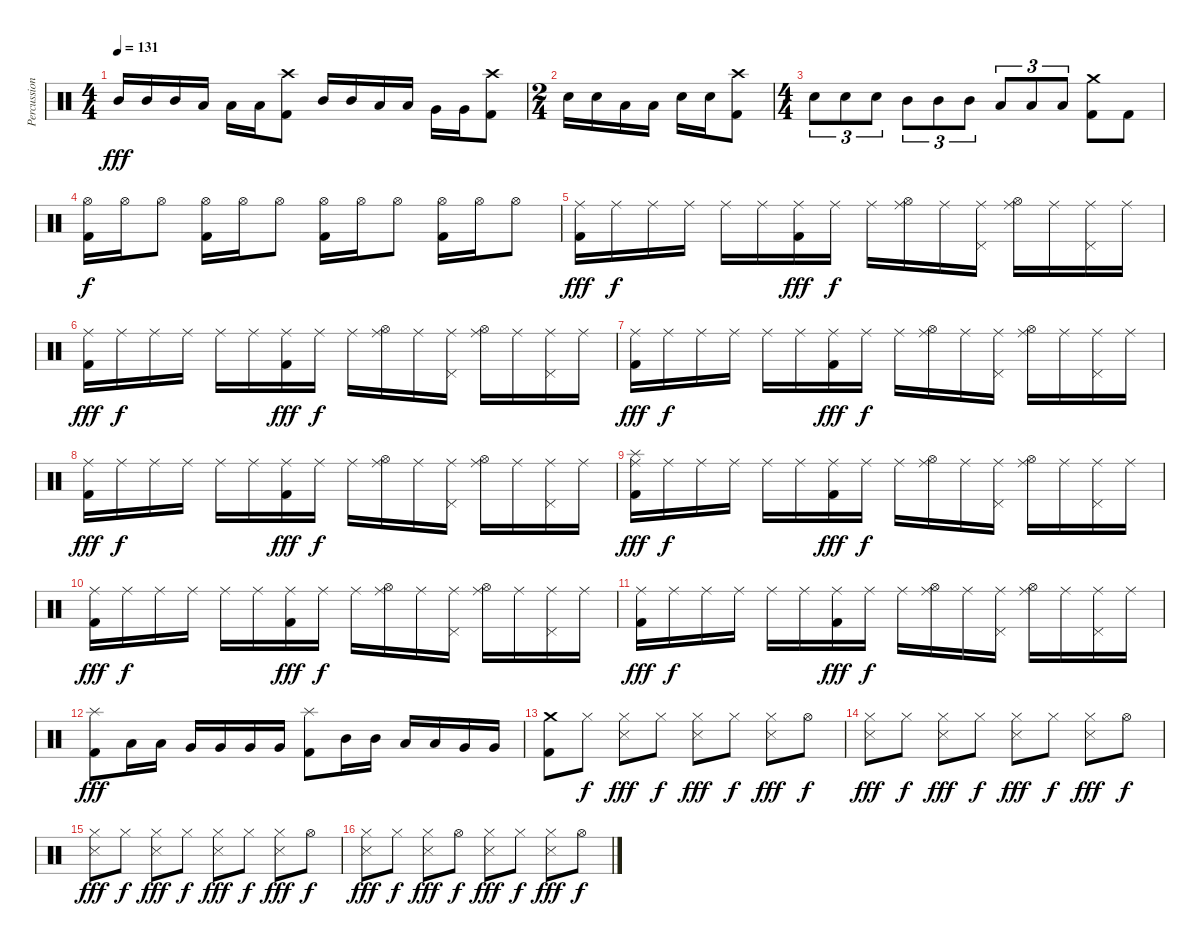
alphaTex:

\track ("Percussion" "Percussion") {instrument percussion}
\staff {score}
\articulation defaults
\ts (4 4)
\tempo 131
\clef neutral
\ks c "Mid Tom (hit)".16{dy fff} "Mid Tom (hit)".16 "Mid Tom (hit)".16 "Low Tom (hit)".16 "Low Tom (hit)".16 "Low Tom (hit)".16
("Crash high (hit)" "Kick (hit) 2").8 "Mid Tom (hit)".16 "Mid Tom (hit)".16 "Low Tom (hit)".16 "Low Tom (hit)".16 "Very Low Tom (hit)".16 "Very Low Tom (hit)".16 ("Crash high (hit)" "Kick (hit) 2").8 |
\ts (2 4)
"Electric Snare (hit)".16 "Electric Snare (hit)".16 "Low Tom (hit)".16 "Low Tom (hit)".16 "Electric Snare (hit)".16 "Electric Snare (hit)".16 ("Crash high (hit)" "Kick (hit) 2").8 |
\ts (4 4)
"Electric Snare (hit)".8{tu (3 2)} "Electric Snare (hit)".8{tu (3 2)} "Electric Snare (hit)".8{tu (3 2)} "Mid Tom (hit)".8{tu (3 2)} "Mid Tom (hit)".8{tu (3 2)} "Mid Tom (hit)".8{tu (3 2)} "Low Tom (hit)".8{tu (3 2)} "Low Tom (hit)".8{tu (3 2)} "Low Tom (hit)".8{tu (3 2)} ("Crash medium (hit)" "Kick (hit) 2").8 "Kick (hit) 2".8 |
("Hi-Hat (open)" "Kick (hit) 2").16{dy f} "Hi-Hat (open)".16 "Hi-Hat (open)".8 ("Hi-Hat (open)" "Kick (hit) 2").16 "Hi-Hat (open)".16 "Hi-Hat (open)".8 ("Hi-Hat (open)" "Kick (hit) 2").16 "Hi-Hat (open)".16 "Hi-Hat (open)".8 ("Hi-Hat (open)" "Kick (hit) 2").16 "Hi-Hat (open)".16 "Hi-Hat (open)".8 |
("Ride (middle)" "Kick (hit) 2").16{dy fff} "Ride (middle)".16{dy f} "Ride (middle)".16 "Ride (middle)".16 "Ride (middle)".16 "Ride (middle)".16 ("Ride (middle)" "Kick (hit) 2").16{dy fff} "Ride (middle)".16{dy f} "Ride (middle)".16 ("Ride (middle)" "Hi-Hat (open)").16 "Ride (middle)".16 ("Ride (middle)" "Pedal Hi-Hat (hit)").16 ("Ride (middle)" "Hi-Hat (open)").16 "Ride (middle)".16 ("Ride (middle)" "Pedal Hi-Hat (hit)").16 "Ride (middle)".16 |
("Ride (middle)" "Kick (hit) 2").16{dy fff} "Ride (middle)".16{dy f} "Ride (middle)".16 "Ride (middle)".16 "Ride (middle)".16 "Ride (middle)".16 ("Ride (middle)" "Kick (hit) 2").16{dy fff} "Ride (middle)".16{dy f} "Ride (middle)".16 ("Ride (middle)" "Hi-Hat (open)").16 "Ride (middle)".16 ("Ride (middle)" "Pedal Hi-Hat (hit)").16 ("Ride (middle)" "Hi-Hat (open)").16 "Ride (middle)".16 ("Ride (middle)" "Pedal Hi-Hat (hit)").16 "Ride (middle)".16 |
("Ride (middle)" "Kick (hit) 2").16{dy fff} "Ride (middle)".16{dy f} "Ride (middle)".16 "Ride (middle)".16 "Ride (middle)".16 "Ride (middle)".16 ("Ride (middle)" "Kick (hit) 2").16{dy fff} "Ride (middle)".16{dy f} "Ride (middle)".16 ("Ride (middle)" "Hi-Hat (open)").16 "Ride (middle)".16 ("Ride (middle)" "Pedal Hi-Hat (hit)").16 ("Ride (middle)" "Hi-Hat (open)").16 "Ride (middle)".16 ("Ride (middle)" "Pedal Hi-Hat (hit)").16 "Ride (middle)".16 |
("Ride (middle)" "Kick (hit) 2").16{dy fff} "Ride (middle)".16{dy f} "Ride (middle)".16 "Ride (middle)".16 "Ride (middle)".16 "Ride (middle)".16 ("Ride (middle)" "Kick (hit) 2").16{dy fff} "Ride (middle)".16{dy f} "Ride (middle)".16 ("Ride (middle)" "Hi-Hat (open)").16 "Ride (middle)".16 ("Ride (middle)" "Pedal Hi-Hat (hit)").16 ("Ride (middle)" "Hi-Hat (open)").16 "Ride (middle)".16 ("Ride (middle)" "Pedal Hi-Hat (hit)").16 "Ride (middle)".16 |
("Ride (middle)" "Splash (hit)" "Kick (hit) 2").16{dy fff} "Ride (middle)".16{dy f} "Ride (middle)".16 "Ride (middle)".16 "Ride (middle)".16 "Ride (middle)".16 ("Ride (middle)" "Kick (hit) 2").16{dy fff} "Ride (middle)".16{dy f} "Ride (middle)".16 ("Ride (middle)" "Hi-Hat (open)").16 "Ride (middle)".16 ("Ride (middle)" "Pedal Hi-Hat (hit)").16 ("Ride (middle)" "Hi-Hat (open)").16 "Ride (middle)".16 ("Ride (middle)" "Pedal Hi-Hat (hit)").16 "Ride (middle)".16 |
("Ride (middle)" "Kick (hit) 2").16{dy fff} "Ride (middle)".16{dy f} "Ride (middle)".16 "Ride (middle)".16 "Ride (middle)".16 "Ride (middle)".16 ("Ride (middle)" "Kick (hit) 2").16{dy fff} "Ride (middle)".16{dy f} "Ride (middle)".16 ("Ride (middle)" "Hi-Hat (open)").16 "Ride (middle)".16 ("Ride (middle)" "Pedal Hi-Hat (hit)").16 ("Ride (middle)" "Hi-Hat (open)").16 "Ride (middle)".16 ("Ride (middle)" "Pedal Hi-Hat (hit)").16 "Ride (middle)".16 |
("Ride (middle)" "Kick (hit) 2").16{dy fff} "Ride (middle)".16{dy f} "Ride (middle)".16 "Ride (middle)".16 "Ride (middle)".16 "Ride (middle)".16 ("Ride (middle)" "Kick (hit) 2").16{dy fff} "Ride (middle)".16{dy f} "Ride (middle)".16 ("Ride (middle)" "Hi-Hat (open)").16 "Ride (middle)".16 ("Ride (middle)" "Pedal Hi-Hat (hit)").16 ("Ride (middle)" "Hi-Hat (open)").16 "Ride (middle)".16 ("Ride (middle)" "Pedal Hi-Hat (hit)").16 "Ride (middle)".16 |
("Splash (hit)" "Kick (hit) 2").8{dy fff} "Low Tom (hit)".16 "Low Tom (hit)".16 "Very Low Tom (hit)".16 "Very Low Tom (hit)".16 "Very Low Tom (hit)".16 "Very Low Tom (hit)".16 ("Splash (hit)" "Kick (hit) 2").8 "Mid Tom (hit)".16 "Mid Tom (hit)".16 "Low Tom (hit)".16 "Low Tom (hit)".16 "Very Low Tom (hit)".16 "Very Low Tom (hit)".16 |
("Crash medium (hit)" "Kick (hit) 2").8 "Hi-Hat (closed)".8{dy f} ("Hi-Hat (closed)" "Snare (side stick) 3").8{dy fff} "Hi-Hat (closed)".8{dy f} ("Hi-Hat (closed)" "Snare (side stick) 3").8{dy fff} "Hi-Hat (closed)".8{dy f} ("Hi-Hat (closed)" "Snare (side stick) 3").8{dy fff} "Hi-Hat (open)".8{dy f} |
("Hi-Hat (closed)" "Snare (side stick) 3").8{dy fff} "Hi-Hat (closed)".8{dy f} ("Hi-Hat (closed)" "Snare (side stick) 3").8{dy fff} "Hi-Hat (closed)".8{dy f} ("Hi-Hat (closed)" "Snare (side stick) 3").8{dy fff} "Hi-Hat (closed)".8{dy f} ("Hi-Hat (closed)" "Snare (side stick) 3").8{dy fff} "Hi-Hat (open)".8{dy f} |
("Hi-Hat (closed)" "Snare (side stick) 3").8{dy fff} "Hi-Hat (closed)".8{dy f} ("Hi-Hat (closed)" "Snare (side stick) 3").8{dy fff} "Hi-Hat (closed)".8{dy f} ("Hi-Hat (closed)" "Snare (side stick) 3").8{dy fff} "Hi-Hat (closed)".8{dy f} ("Hi-Hat (closed)" "Snare (side stick) 3").8{dy fff} "Hi-Hat (open)".8{dy f} |
("Hi-Hat (closed)" "Snare (side stick) 3").8{dy fff} "Hi-Hat (closed)".8{dy f} ("Hi-Hat (closed)" "Snare (side stick) 3").8{dy fff} "Hi-Hat (open)".8{dy f} ("Hi-Hat (closed)" "Snare (side stick) 3").8{dy fff} "Hi-Hat (closed)".8{dy f} ("Hi-Hat (closed)" "Snare (side stick) 3").8{dy fff} "Hi-Hat (open)".8{dy f}
